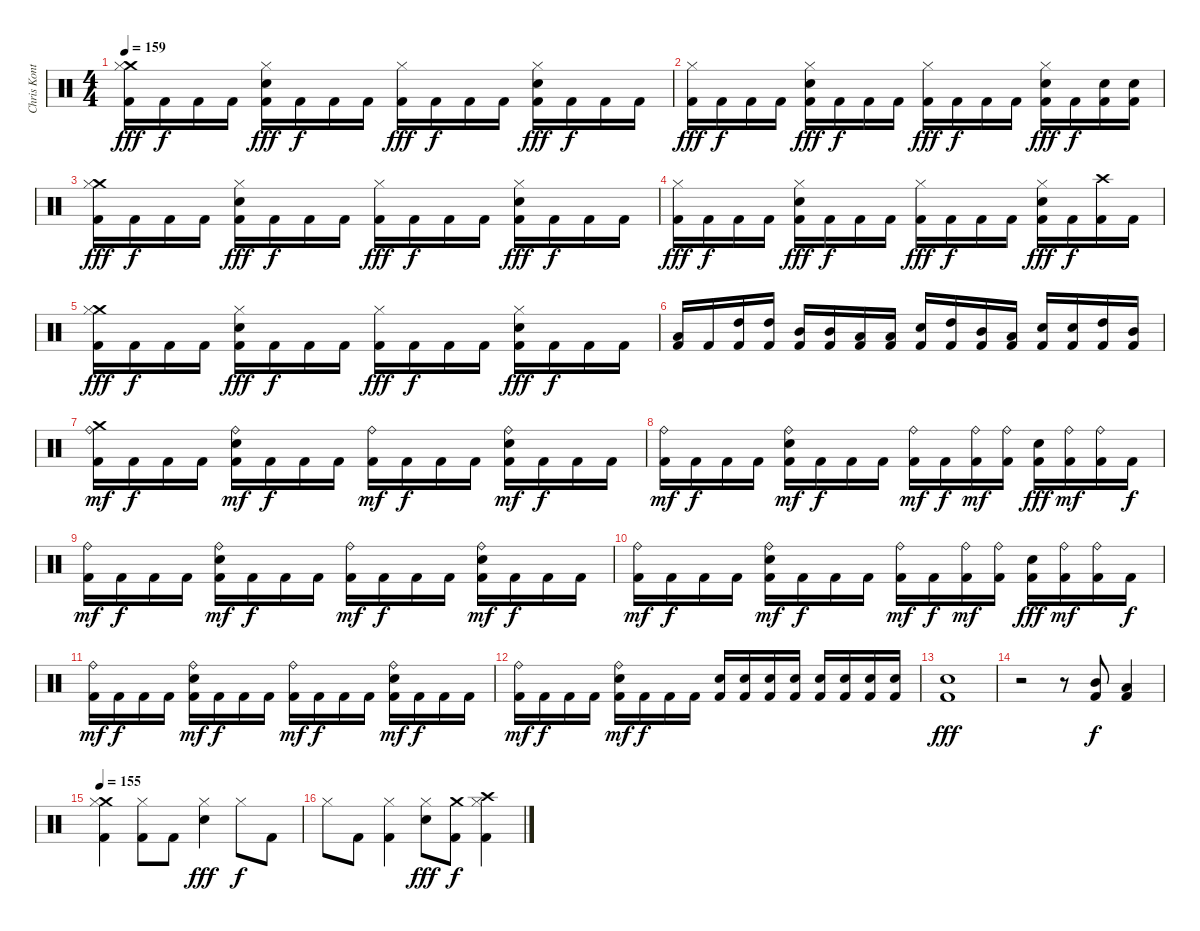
\track ("Chris Kontos" "Chris Kont") {instrument percussion}
\staff {score}
\articulation defaults
\ts (4 4)
\tempo 159
\clef neutral
\ks c
("Crash medium (hit)" "Hi-Hat (closed)" "Kick (hit) 2").16{dy fff} "Kick (hit) 2".16{dy f} "Kick (hit) 2".16 "Kick (hit) 2".16 ("Electric Snare (hit)" "Hi-Hat (closed)" "Kick (hit) 2").16{dy fff} "Kick (hit) 2".16{dy f} "Kick (hit) 2".16 "Kick (hit) 2".16 ("Hi-Hat (closed)" "Kick (hit) 2").16{dy fff} "Kick (hit) 2".16{dy f} "Kick (hit) 2".16 "Kick (hit) 2".16 ("Electric Snare (hit)" "Hi-Hat (closed)" "Kick (hit) 2").16{dy fff} "Kick (hit) 2".16{dy f} "Kick (hit) 2".16 "Kick (hit) 2".16 |
("Hi-Hat (closed)" "Kick (hit) 2").16{dy fff} "Kick (hit) 2".16{dy f} "Kick (hit) 2".16 "Kick (hit) 2".16 ("Electric Snare (hit)" "Hi-Hat (closed)" "Kick (hit) 2").16{dy fff} "Kick (hit) 2".16{dy f} "Kick (hit) 2".16 "Kick (hit) 2".16 ("Hi-Hat (closed)" "Kick (hit) 2").16{dy fff} "Kick (hit) 2".16{dy f} "Kick (hit) 2".16 "Kick (hit) 2".16 ("Electric Snare (hit)" "Hi-Hat (closed)" "Kick (hit) 2").16{dy fff} "Kick (hit) 2".16{dy f} ("Electric Snare (hit)" "Kick (hit) 2").16 ("Electric Snare (hit)" "Kick (hit) 2").16 |
("Crash medium (hit)" "Hi-Hat (closed)" "Kick (hit) 2").16{dy fff} "Kick (hit) 2".16{dy f} "Kick (hit) 2".16 "Kick (hit) 2".16 ("Electric Snare (hit)" "Hi-Hat (closed)" "Kick (hit) 2").16{dy fff} "Kick (hit) 2".16{dy f} "Kick (hit) 2".16 "Kick (hit) 2".16 ("Hi-Hat (closed)" "Kick (hit) 2").16{dy fff} "Kick (hit) 2".16{dy f} "Kick (hit) 2".16 "Kick (hit) 2".16 ("Electric Snare (hit)" "Hi-Hat (closed)" "Kick (hit) 2").16{dy fff} "Kick (hit) 2".16{dy f} "Kick (hit) 2".16 "Kick (hit) 2".16 |
("Hi-Hat (closed)" "Kick (hit) 2").16{dy fff} "Kick (hit) 2".16{dy f} "Kick (hit) 2".16 "Kick (hit) 2".16 ("Electric Snare (hit)" "Hi-Hat (closed)" "Kick (hit) 2").16{dy fff} "Kick (hit) 2".16{dy f} "Kick (hit) 2".16 "Kick (hit) 2".16 ("Hi-Hat (closed)" "Kick (hit) 2").16{dy fff} "Kick (hit) 2".16{dy f} "Kick (hit) 2".16 "Kick (hit) 2".16 ("Electric Snare (hit)" "Hi-Hat (closed)" "Kick (hit) 2").16{dy fff} "Kick (hit) 2".16{dy f} ("Crash high (hit)" "Kick (hit) 2").16 "Kick (hit) 2".16 |
("Crash medium (hit)" "Hi-Hat (closed)" "Kick (hit) 2").16{dy fff} "Kick (hit) 2".16{dy f} "Kick (hit) 2".16 "Kick (hit) 2".16 ("Electric Snare (hit)" "Hi-Hat (closed)" "Kick (hit) 2").16{dy fff} "Kick (hit) 2".16{dy f} "Kick (hit) 2".16 "Kick (hit) 2".16 ("Hi-Hat (closed)" "Kick (hit) 2").16{dy fff} "Kick (hit) 2".16{dy f} "Kick (hit) 2".16 "Kick (hit) 2".16 ("Electric Snare (hit)" "Hi-Hat (closed)" "Kick (hit) 2").16{dy fff} "Kick (hit) 2".16{dy f} "Kick (hit) 2".16 "Kick (hit) 2".16 |
("Low Tom (hit)" "Kick (hit) 2").16 "Kick (hit) 2".16 ("High Tom (hit)" "Kick (hit) 2").16 ("High Tom (hit)" "Kick (hit) 2").16 ("Mid Tom (hit)" "Kick (hit) 2").16 ("Mid Tom (hit)" "Kick (hit) 2").16 ("Low Tom (hit)" "Kick (hit) 2").16 ("Low Tom (hit)" "Kick (hit) 2").16 ("Electric Snare (hit)" "Kick (hit) 2").16 ("High Tom (hit)" "Kick (hit) 2").16 ("Mid Tom (hit)" "Kick (hit) 2").16 ("Low Tom (hit)" "Kick (hit) 2").16 ("Electric Snare (hit)" "Kick (hit) 2").16 ("Electric Snare (hit)" "Kick (hit) 2").16 ("High Tom (hit)" "Kick (hit) 2").16 ("Mid Tom (hit)" "Kick (hit) 2").16 |
("Crash medium (hit)" "Ride (bell)" "Kick (hit) 2").16{dy mf} "Kick (hit) 2".16{dy f} "Kick (hit) 2".16 "Kick (hit) 2".16 ("Electric Snare (hit)" "Ride (bell)" "Kick (hit) 2").16{dy mf} "Kick (hit) 2".16{dy f} "Kick (hit) 2".16 "Kick (hit) 2".16 ("Ride (bell)" "Kick (hit) 2").16{dy mf} "Kick (hit) 2".16{dy f} "Kick (hit) 2".16 "Kick (hit) 2".16 ("Electric Snare (hit)" "Ride (bell)" "Kick (hit) 2").16{dy mf} "Kick (hit) 2".16{dy f} "Kick (hit) 2".16 "Kick (hit) 2".16 |
("Ride (bell)" "Kick (hit) 2").16{dy mf} "Kick (hit) 2".16{dy f} "Kick (hit) 2".16 "Kick (hit) 2".16 ("Electric Snare (hit)" "Ride (bell)" "Kick (hit) 2").16{dy mf} "Kick (hit) 2".16{dy f} "Kick (hit) 2".16 "Kick (hit) 2".16 ("Ride (bell)" "Kick (hit) 2").16{dy mf} "Kick (hit) 2".16{dy f} ("Ride (bell)" "Kick (hit) 2").16{dy mf} ("Ride (bell)" "Kick (hit) 2").16 ("Electric Snare (hit)" "Kick (hit) 2").16{dy fff} ("Ride (bell)" "Kick (hit) 2").16{dy mf} ("Ride (bell)" "Kick (hit) 2").16 "Kick (hit) 2".16{dy f} |
("Ride (bell)" "Kick (hit) 2").16{dy mf} "Kick (hit) 2".16{dy f} "Kick (hit) 2".16 "Kick (hit) 2".16 ("Electric Snare (hit)" "Ride (bell)" "Kick (hit) 2").16{dy mf} "Kick (hit) 2".16{dy f} "Kick (hit) 2".16 "Kick (hit) 2".16 ("Ride (bell)" "Kick (hit) 2").16{dy mf} "Kick (hit) 2".16{dy f} "Kick (hit) 2".16 "Kick (hit) 2".16 ("Electric Snare (hit)" "Ride (bell)" "Kick (hit) 2").16{dy mf} "Kick (hit) 2".16{dy f} "Kick (hit) 2".16 "Kick (hit) 2".16 |
("Ride (bell)" "Kick (hit) 2").16{dy mf} "Kick (hit) 2".16{dy f} "Kick (hit) 2".16 "Kick (hit) 2".16 ("Electric Snare (hit)" "Ride (bell)" "Kick (hit) 2").16{dy mf} "Kick (hit) 2".16{dy f} "Kick (hit) 2".16 "Kick (hit) 2".16 ("Ride (bell)" "Kick (hit) 2").16{dy mf} "Kick (hit) 2".16{dy f} ("Ride (bell)" "Kick (hit) 2").16{dy mf} ("Ride (bell)" "Kick (hit) 2").16 ("Electric Snare (hit)" "Kick (hit) 2").16{dy fff} ("Ride (bell)" "Kick (hit) 2").16{dy mf} ("Ride (bell)" "Kick (hit) 2").16 "Kick (hit) 2".16{dy f} |
("Ride (bell)" "Kick (hit) 2").16{dy mf} "Kick (hit) 2".16{dy f} "Kick (hit) 2".16 "Kick (hit) 2".16 ("Electric Snare (hit)" "Ride (bell)" "Kick (hit) 2").16{dy mf} "Kick (hit) 2".16{dy f} "Kick (hit) 2".16 "Kick (hit) 2".16 ("Ride (bell)" "Kick (hit) 2").16{dy mf} "Kick (hit) 2".16{dy f} "Kick (hit) 2".16 "Kick (hit) 2".16 ("Electric Snare (hit)" "Ride (bell)" "Kick (hit) 2").16{dy mf} "Kick (hit) 2".16{dy f} "Kick (hit) 2".16 "Kick (hit) 2".16 |
("Ride (bell)" "Kick (hit) 2").16{dy mf} "Kick (hit) 2".16{dy f} "Kick (hit) 2".16 "Kick (hit) 2".16 ("Electric Snare (hit)" "Ride (bell)" "Kick (hit) 2").16{dy mf} "Kick (hit) 2".16{dy f} "Kick (hit) 2".16 "Kick (hit) 2".16 ("Electric Snare (hit)" "Kick (hit) 2").16 ("Electric Snare (hit)" "Kick (hit) 2").16 ("Electric Snare (hit)" "Kick (hit) 2").16 ("Electric Snare (hit)" "Kick (hit) 2").16 ("Electric Snare (hit)" "Kick (hit) 2").16 ("Electric Snare (hit)" "Kick (hit) 2").16 ("Electric Snare (hit)" "Kick (hit) 2").16 ("Electric Snare (hit)" "Kick (hit) 2").16 |
("Electric Snare (hit)" "Kick (hit) 2").1{dy fff} |
r.2 r.8 ("Mid Tom (hit)" "Kick (hit) 2").8{dy f} ("Low Tom (hit)" "Kick (hit) 2").4 |
\tempo 155
("Crash medium (hit)" "Hi-Hat (closed)" "Kick (hit) 2").4 ("Hi-Hat (closed)" "Kick (hit) 2").8 "Kick (hit) 2".8 ("Electric Snare (hit)" "Hi-Hat (closed)").4{dy fff} "Hi-Hat (closed)".8{dy f} "Kick (hit) 2".8 |
"Hi-Hat (closed)".8 "Kick (hit) 2".8 ("Hi-Hat (closed)" "Kick (hit) 2").4 ("Electric Snare (hit)" "Hi-Hat (closed)").8{dy fff} ("Crash medium (hit)" "Kick (hit) 2").8{dy f} ("Crash high (hit)" "Hi-Hat (closed)" "Kick (hit) 2").4
